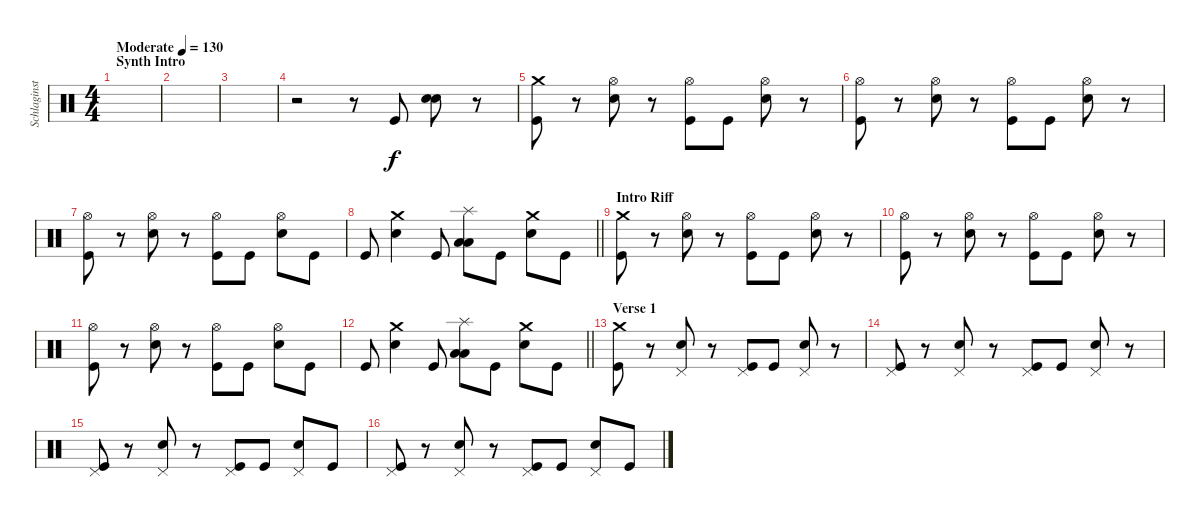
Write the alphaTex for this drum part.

\track ("Schlaginstrumente - Auswahl" "Schlaginst") {instrument percussion}
\staff {score}
\articulation defaults
\ts (4 4)
\section ("" "Synth Intro")
\tempo (130 "Moderate")
\clef neutral
\ks c
|
|
|
r.2 r.8 "Kick (hit)".8 ("Electric Snare (hit)" "Snare (hit) 2").8{bu 480} r.8 |
("Crash medium (hit)" "Kick (hit)").8 r.8 ("Hi-Hat (open)" "Snare (hit) 2").8 r.8 ("Hi-Hat (open)" "Kick (hit)").8 "Kick (hit)".8 ("Hi-Hat (open)" "Snare (hit) 2").8 r.8 |
("Hi-Hat (open)" "Kick (hit)").8 r.8 ("Hi-Hat (open)" "Snare (hit) 2").8 r.8 ("Hi-Hat (open)" "Kick (hit)").8 "Kick (hit)".8 ("Hi-Hat (open)" "Snare (hit) 2").8 r.8 |
("Hi-Hat (open)" "Kick (hit)").8 r.8 ("Hi-Hat (open)" "Snare (hit) 2").8 r.8 ("Hi-Hat (open)" "Kick (hit)").8 "Kick (hit)".8 ("Hi-Hat (open)" "Snare (hit) 2").8 "Kick (hit)".8 |
\barLineRight lightlight "Kick (hit)".8
("Crash medium (hit)" "Snare (hit) 2").4 "Kick (hit)".8 ("Splash (hit)" "Low Tom (hit)" "Low Tom (hit)").8 "Kick (hit)".8 ("Crash medium (hit)" "Snare (hit) 2").8 "Kick (hit)".8 |
\section ("" "Intro Riff")
("Crash medium (hit)" "Kick (hit)").8 r.8 ("Hi-Hat (open)" "Snare (hit) 2").8 r.8 ("Hi-Hat (open)" "Kick (hit)").8 "Kick (hit)".8 ("Hi-Hat (open)" "Snare (hit) 2").8 r.8 |
("Hi-Hat (open)" "Kick (hit)").8 r.8 ("Hi-Hat (open)" "Snare (hit) 2").8 r.8 ("Hi-Hat (open)" "Kick (hit)").8 "Kick (hit)".8 ("Hi-Hat (open)" "Snare (hit) 2").8 r.8 |
("Hi-Hat (open)" "Kick (hit)").8 r.8 ("Hi-Hat (open)" "Snare (hit) 2").8 r.8 ("Hi-Hat (open)" "Kick (hit)").8 "Kick (hit)".8 ("Hi-Hat (open)" "Snare (hit) 2").8 "Kick (hit)".8 |
\barLineRight lightlight "Kick (hit)".8
("Crash medium (hit)" "Snare (hit) 2").4 "Kick (hit)".8 ("Splash (hit)" "Low Tom (hit)" "Low Tom (hit)").8 "Kick (hit)".8 ("Crash medium (hit)" "Snare (hit) 2").8 "Kick (hit)".8 |
\section ("" "Verse 1")
("Crash medium (hit)" "Kick (hit)").8 r.8 ("Pedal Hi-Hat (hit)" "Snare (hit) 2").8 r.8 ("Pedal Hi-Hat (hit)" "Kick (hit)").8 "Kick (hit)".8 ("Pedal Hi-Hat (hit)" "Snare (hit) 2").8 r.8 |
("Pedal Hi-Hat (hit)" "Kick (hit)").8 r.8 ("Pedal Hi-Hat (hit)" "Snare (hit) 2").8 r.8 ("Pedal Hi-Hat (hit)" "Kick (hit)").8 "Kick (hit)".8 ("Pedal Hi-Hat (hit)" "Snare (hit) 2").8 r.8 |
("Pedal Hi-Hat (hit)" "Kick (hit)").8 r.8 ("Pedal Hi-Hat (hit)" "Snare (hit) 2").8 r.8 ("Pedal Hi-Hat (hit)" "Kick (hit)").8 "Kick (hit)".8 ("Pedal Hi-Hat (hit)" "Snare (hit) 2").8 "Kick (hit)".8 |
("Pedal Hi-Hat (hit)" "Kick (hit)").8 r.8 ("Pedal Hi-Hat (hit)" "Snare (hit) 2").8 r.8 ("Pedal Hi-Hat (hit)" "Kick (hit)").8 "Kick (hit)".8 ("Pedal Hi-Hat (hit)" "Snare (hit) 2").8 "Kick (hit)".8
